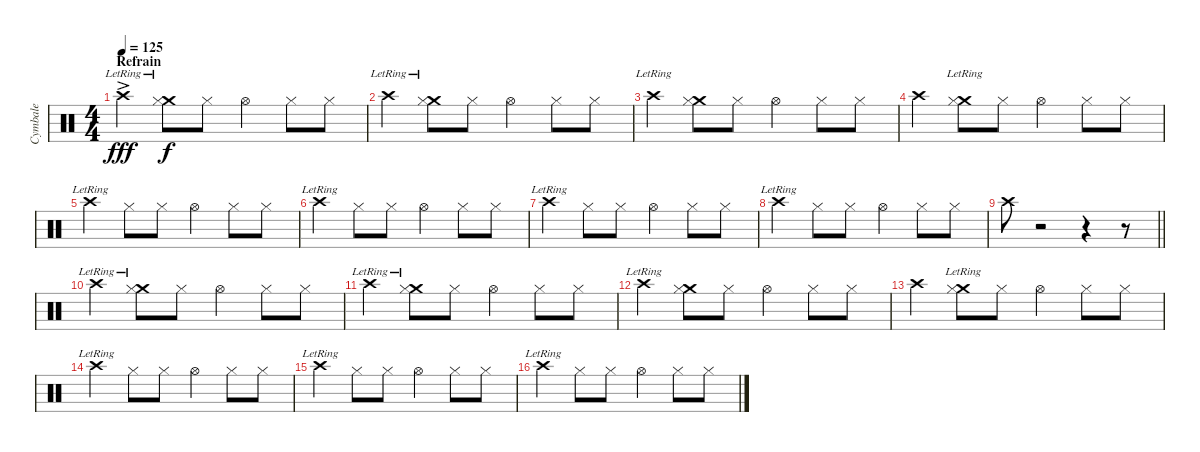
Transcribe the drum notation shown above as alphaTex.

\track ("Cymbale" "Cymbale") {instrument percussion}
\staff {score}
\articulation defaults
\ts (4 4)
\section ("" "Refrain")
\tempo 125
\clef neutral
\ks c "Crash high (hit)"{ac lr}.4{dy fff}
("Crash medium (hit)"{lr} "Hi-Hat (closed)").8{dy f} "Hi-Hat (closed)".8 "Hi-Hat (open)".4 "Hi-Hat (closed)".8 "Hi-Hat (closed)".8 |
"Crash high (hit)"{lr}.4 ("Crash medium (hit)"{lr} "Hi-Hat (closed)").8 "Hi-Hat (closed)".8 "Hi-Hat (open)".4 "Hi-Hat (closed)".8 "Hi-Hat (closed)".8 |
"Crash high (hit)"{lr}.4 ("Crash medium (hit)" "Hi-Hat (closed)").8 "Hi-Hat (closed)".8 "Hi-Hat (open)".4 "Hi-Hat (closed)".8 "Hi-Hat (closed)".8 |
"Crash high (hit)".4 ("Crash medium (hit)"{lr} "Hi-Hat (closed)").8 "Hi-Hat (closed)".8 "Hi-Hat (open)".4 "Hi-Hat (closed)".8 "Hi-Hat (closed)".8 |
"Crash high (hit)"{lr}.4 "Hi-Hat (closed)".8 "Hi-Hat (closed)".8 "Hi-Hat (open)".4 "Hi-Hat (closed)".8 "Hi-Hat (closed)".8 |
"Crash high (hit)"{lr}.4 "Hi-Hat (closed)".8 "Hi-Hat (closed)".8 "Hi-Hat (open)".4 "Hi-Hat (closed)".8 "Hi-Hat (closed)".8 |
"Crash high (hit)"{lr}.4 "Hi-Hat (closed)".8 "Hi-Hat (closed)".8 "Hi-Hat (open)".4 "Hi-Hat (closed)".8 "Hi-Hat (closed)".8 |
"Crash high (hit)"{lr}.4 "Hi-Hat (closed)".8 "Hi-Hat (closed)".8 "Hi-Hat (open)".4 "Hi-Hat (closed)".8 "Hi-Hat (closed)".8 |
\barLineRight lightlight "Crash high (hit)".8
r.2 r.4 r.8 |
"Crash high (hit)"{lr}.4 ("Crash medium (hit)"{lr} "Hi-Hat (closed)").8 "Hi-Hat (closed)".8 "Hi-Hat (open)".4 "Hi-Hat (closed)".8 "Hi-Hat (closed)".8 |
"Crash high (hit)"{lr}.4 ("Crash medium (hit)"{lr} "Hi-Hat (closed)").8 "Hi-Hat (closed)".8 "Hi-Hat (open)".4 "Hi-Hat (closed)".8 "Hi-Hat (closed)".8 |
"Crash high (hit)"{lr}.4 ("Crash medium (hit)" "Hi-Hat (closed)").8 "Hi-Hat (closed)".8 "Hi-Hat (open)".4 "Hi-Hat (closed)".8 "Hi-Hat (closed)".8 |
"Crash high (hit)".4 ("Crash medium (hit)"{lr} "Hi-Hat (closed)").8 "Hi-Hat (closed)".8 "Hi-Hat (open)".4 "Hi-Hat (closed)".8 "Hi-Hat (closed)".8 |
"Crash high (hit)"{lr}.4 "Hi-Hat (closed)".8 "Hi-Hat (closed)".8 "Hi-Hat (open)".4 "Hi-Hat (closed)".8 "Hi-Hat (closed)".8 |
"Crash high (hit)"{lr}.4 "Hi-Hat (closed)".8 "Hi-Hat (closed)".8 "Hi-Hat (open)".4 "Hi-Hat (closed)".8 "Hi-Hat (closed)".8 |
"Crash high (hit)"{lr}.4 "Hi-Hat (closed)".8 "Hi-Hat (closed)".8 "Hi-Hat (open)".4 "Hi-Hat (closed)".8 "Hi-Hat (closed)".8
